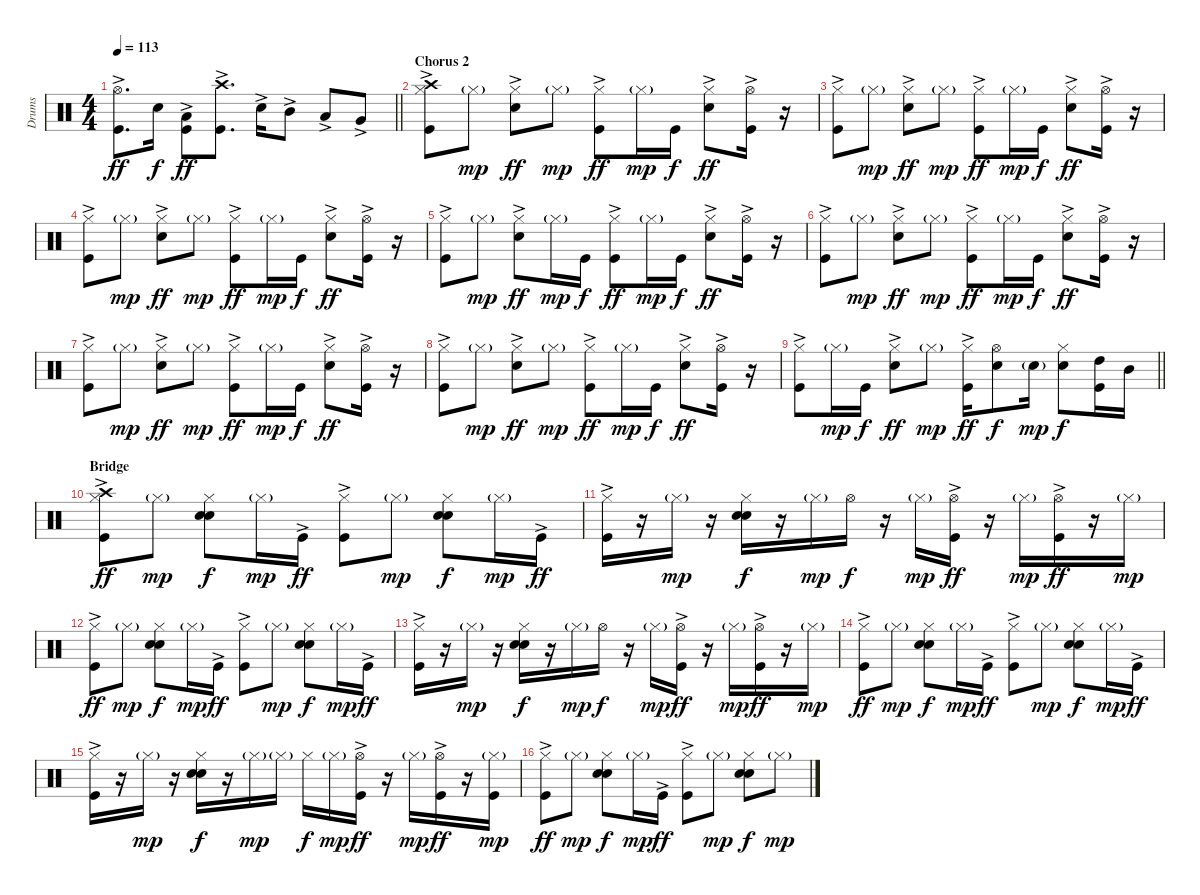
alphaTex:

\track ("Drums" "Drums") {instrument percussion}
\staff {score}
\articulation defaults
\ts (4 4)
\tempo 113
\clef neutral
\barLineRight lightlight
\ks c
("Hi-Hat (open)" "Kick (hit)"{ac}).8{d dy ff} "Snare (hit) 2".16{dy f} ("Low Tom (hit)" "Kick (hit)"{ac}).8{dy ff} ("Crash high (hit)" "Kick (hit)"{ac}).8{d} "Snare (hit) 2"{ac}.16 "Mid Tom (hit)"{ac}.8 "Low Tom (hit)"{ac}.8 "Very Low Tom (hit)"{ac}.8 |
\section ("" "Chorus 2")
("Crash high (hit)" "Hi-Hat (closed)" "Kick (hit)"{ac}).8 "Hi-Hat (closed)"{g}.8{dy mp} ("Hi-Hat (closed)" "Snare (hit) 2"{ac}).8{dy ff} "Hi-Hat (closed)"{g}.8{dy mp} ("Hi-Hat (closed)" "Kick (hit)"{ac}).8{dy ff} "Hi-Hat (closed)"{g}.16{dy mp} "Kick (hit)".16{dy f} ("Hi-Hat (closed)" "Snare (hit) 2"{ac}).8{dy ff} ("Hi-Hat (open)" "Kick (hit)"{ac}).16 r.16 |
("Hi-Hat (closed)" "Kick (hit)"{ac}).8 "Hi-Hat (closed)"{g}.8{dy mp} ("Hi-Hat (closed)" "Snare (hit) 2"{ac}).8{dy ff} "Hi-Hat (closed)"{g}.8{dy mp} ("Hi-Hat (closed)" "Kick (hit)"{ac}).8{dy ff} "Hi-Hat (closed)"{g}.16{dy mp} "Kick (hit)".16{dy f} ("Hi-Hat (closed)" "Snare (hit) 2"{ac}).8{dy ff} ("Hi-Hat (open)" "Kick (hit)"{ac}).16 r.16 |
("Hi-Hat (closed)" "Kick (hit)"{ac}).8 "Hi-Hat (closed)"{g}.8{dy mp} ("Hi-Hat (closed)" "Snare (hit) 2"{ac}).8{dy ff} "Hi-Hat (closed)"{g}.8{dy mp} ("Hi-Hat (closed)" "Kick (hit)"{ac}).8{dy ff} "Hi-Hat (closed)"{g}.16{dy mp} "Kick (hit)".16{dy f} ("Hi-Hat (closed)" "Snare (hit) 2"{ac}).8{dy ff} ("Hi-Hat (open)" "Kick (hit)"{ac}).16 r.16 |
("Hi-Hat (closed)" "Kick (hit)"{ac}).8 "Hi-Hat (closed)"{g}.8{dy mp} ("Hi-Hat (closed)" "Snare (hit) 2"{ac}).8{dy ff} "Hi-Hat (closed)"{g}.16{dy mp} "Kick (hit)".16{dy f} ("Hi-Hat (closed)" "Kick (hit)"{ac}).8{dy ff} "Hi-Hat (closed)"{g}.16{dy mp} "Kick (hit)".16{dy f} ("Hi-Hat (closed)" "Snare (hit) 2"{ac}).8{dy ff} ("Hi-Hat (open)" "Kick (hit)"{ac}).16 r.16 |
("Hi-Hat (closed)" "Kick (hit)"{ac}).8 "Hi-Hat (closed)"{g}.8{dy mp} ("Hi-Hat (closed)" "Snare (hit) 2"{ac}).8{dy ff} "Hi-Hat (closed)"{g}.8{dy mp} ("Hi-Hat (closed)" "Kick (hit)"{ac}).8{dy ff} "Hi-Hat (closed)"{g}.16{dy mp} "Kick (hit)".16{dy f} ("Hi-Hat (closed)" "Snare (hit) 2"{ac}).8{dy ff} ("Hi-Hat (open)" "Kick (hit)"{ac}).16 r.16 |
("Hi-Hat (closed)" "Kick (hit)"{ac}).8 "Hi-Hat (closed)"{g}.8{dy mp} ("Hi-Hat (closed)" "Snare (hit) 2"{ac}).8{dy ff} "Hi-Hat (closed)"{g}.8{dy mp} ("Hi-Hat (closed)" "Kick (hit)"{ac}).8{dy ff} "Hi-Hat (closed)"{g}.16{dy mp} "Kick (hit)".16{dy f} ("Hi-Hat (closed)" "Snare (hit) 2"{ac}).8{dy ff} ("Hi-Hat (open)" "Kick (hit)"{ac}).16 r.16 |
("Hi-Hat (closed)" "Kick (hit)"{ac}).8 "Hi-Hat (closed)"{g}.8{dy mp} ("Hi-Hat (closed)" "Snare (hit) 2"{ac}).8{dy ff} "Hi-Hat (closed)"{g}.8{dy mp} ("Hi-Hat (closed)" "Kick (hit)"{ac}).8{dy ff} "Hi-Hat (closed)"{g}.16{dy mp} "Kick (hit)".16{dy f} ("Hi-Hat (closed)" "Snare (hit) 2"{ac}).8{dy ff} ("Hi-Hat (open)" "Kick (hit)"{ac}).16 r.16 |
\barLineRight lightlight
("Hi-Hat (closed)" "Kick (hit)"{ac}).8 "Hi-Hat (closed)"{g}.16{dy mp} "Kick (hit)".16{dy f} ("Hi-Hat (closed)" "Snare (hit) 2"{ac}).8{dy ff} "Hi-Hat (closed)"{g}.8{dy mp} ("Hi-Hat (closed)" "Kick (hit)"{ac}).16{dy ff} ("Hi-Hat (open)" "Snare (hit) 2").8{dy f} "Snare (hit) 2"{g}.16{dy mp} ("Hi-Hat (closed)" "Snare (hit) 2").8{dy f} ("High Tom (hit)" "Kick (hit)").16 "Mid Tom (hit)".16 |
\section ("" "Bridge")
("Crash high (hit)" "Hi-Hat (closed)" "Kick (hit)"{ac}).8{dy ff} "Hi-Hat (closed)"{g}.8{dy mp} ("Hi-Hat (closed)" "Hand Clap (hit)" "Snare (hit) 2").8{dy f} "Hi-Hat (closed)"{g}.16{dy mp} "Kick (hit)"{ac}.16{dy ff} ("Hi-Hat (closed)" "Kick (hit)"{ac}).8 "Hi-Hat (closed)"{g}.8{dy mp} ("Hi-Hat (closed)" "Hand Clap (hit)" "Snare (hit) 2").8{dy f} "Hi-Hat (closed)"{g}.16{dy mp} "Kick (hit)"{ac}.16{dy ff} |
("Hi-Hat (closed)" "Kick (hit)"{ac}).16 r.16 "Hi-Hat (closed)"{g}.16{dy mp} r.16 ("Hi-Hat (closed)" "Hand Clap (hit)" "Snare (hit) 2").16{dy f} r.16 "Hi-Hat (closed)"{g}.16{dy mp} "Hi-Hat (open)".16{dy f} r.16 "Hi-Hat (closed)"{g}.16{dy mp} ("Hi-Hat (open)" "Kick (hit)"{ac}).16{dy ff} r.16 "Hi-Hat (closed)"{g}.16{dy mp} ("Hi-Hat (open)" "Kick (hit)"{ac}).16{dy ff} r.16 "Hi-Hat (closed)"{g}.16{dy mp} |
("Hi-Hat (closed)" "Kick (hit)"{ac}).8{dy ff} "Hi-Hat (closed)"{g}.8{dy mp} ("Hi-Hat (closed)" "Hand Clap (hit)" "Snare (hit) 2").8{dy f} "Hi-Hat (closed)"{g}.16{dy mp} "Kick (hit)"{ac}.16{dy ff} ("Hi-Hat (closed)" "Kick (hit)"{ac}).8 "Hi-Hat (closed)"{g}.8{dy mp} ("Hi-Hat (closed)" "Hand Clap (hit)" "Snare (hit) 2").8{dy f} "Hi-Hat (closed)"{g}.16{dy mp} "Kick (hit)"{ac}.16{dy ff} |
("Hi-Hat (closed)" "Kick (hit)"{ac}).16 r.16 "Hi-Hat (closed)"{g}.16{dy mp} r.16 ("Hi-Hat (closed)" "Hand Clap (hit)" "Snare (hit) 2").16{dy f} r.16 "Hi-Hat (closed)"{g}.16{dy mp} "Hi-Hat (open)".16{dy f} r.16 "Hi-Hat (closed)"{g}.16{dy mp} ("Hi-Hat (open)" "Kick (hit)"{ac}).16{dy ff} r.16 "Hi-Hat (closed)"{g}.16{dy mp} ("Hi-Hat (open)" "Kick (hit)"{ac}).16{dy ff} r.16 "Hi-Hat (closed)"{g}.16{dy mp} |
("Hi-Hat (closed)" "Kick (hit)"{ac}).8{dy ff} "Hi-Hat (closed)"{g}.8{dy mp} ("Hi-Hat (closed)" "Hand Clap (hit)" "Snare (hit) 2").8{dy f} "Hi-Hat (closed)"{g}.16{dy mp} "Kick (hit)"{ac}.16{dy ff} ("Hi-Hat (closed)" "Kick (hit)"{ac}).8 "Hi-Hat (closed)"{g}.8{dy mp} ("Hi-Hat (closed)" "Hand Clap (hit)" "Snare (hit) 2").8{dy f} "Hi-Hat (closed)"{g}.16{dy mp} "Kick (hit)"{ac}.16{dy ff} |
("Hi-Hat (closed)" "Kick (hit)"{ac}).16 r.16 "Hi-Hat (closed)"{g}.16{dy mp} r.16 ("Hi-Hat (closed)" "Hand Clap (hit)" "Snare (hit) 2").16{dy f} r.16 "Hi-Hat (closed)"{g}.16{dy mp} "Hi-Hat (closed)"{g}.16 "Hi-Hat (closed)".16{dy f} "Hi-Hat (closed)"{g}.16{dy mp} ("Hi-Hat (open)" "Kick (hit)"{ac}).16{dy ff} r.16 "Hi-Hat (closed)"{g}.16{dy mp} ("Hi-Hat (open)" "Kick (hit)"{ac}).16{dy ff} r.16 ("Hi-Hat (closed)"{g} "Kick (hit)").16{dy mp} |
("Hi-Hat (closed)" "Kick (hit)"{ac}).8{dy ff} "Hi-Hat (closed)"{g}.8{dy mp} ("Hi-Hat (closed)" "Hand Clap (hit)" "Snare (hit) 2").8{dy f} "Hi-Hat (closed)"{g}.16{dy mp} "Kick (hit)"{ac}.16{dy ff} ("Hi-Hat (closed)" "Kick (hit)"{ac}).8 "Hi-Hat (closed)"{g}.8{dy mp} ("Hi-Hat (closed)" "Hand Clap (hit)" "Snare (hit) 2").8{dy f} "Hi-Hat (closed)"{g}.8{dy mp}
